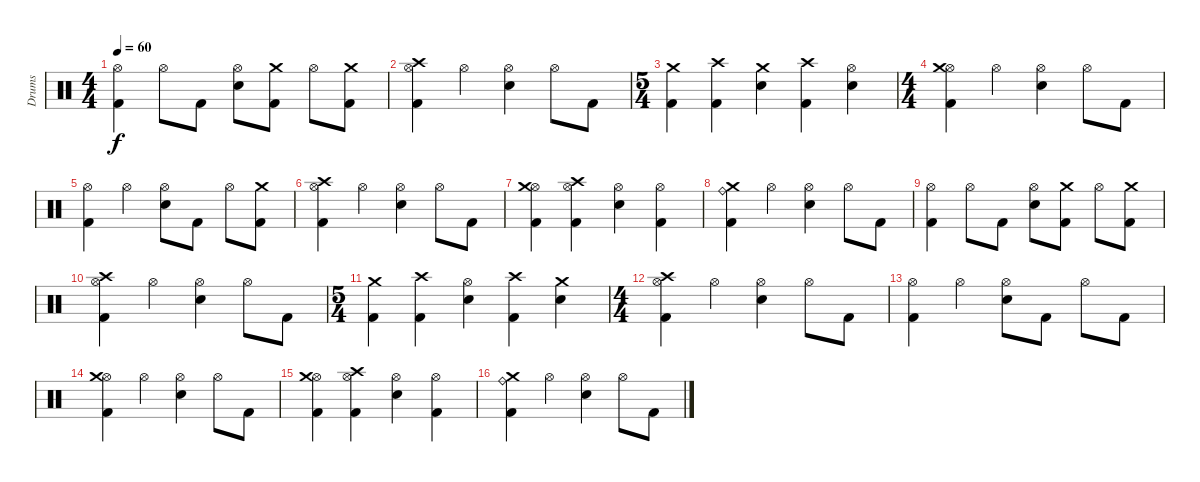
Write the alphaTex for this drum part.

\track ("Drums" "Drums") {instrument percussion}
\staff {score}
\articulation defaults
\ts (4 4)
\tempo 60
\clef neutral
\ks c
("Kick (hit) 2" "Hi-Hat (open)").4{dy f} "Hi-Hat (open)".8 "Kick (hit) 2".8 ("Electric Snare (hit)" "Hi-Hat (open)").8 ("Kick (hit) 2" "Crash medium (hit)").8 "Hi-Hat (open)".8 ("Kick (hit) 2" "Crash medium (hit)").8 |
("Kick (hit) 2" "Hi-Hat (open)" "Crash high (hit)").4 "Hi-Hat (open)".4 ("Electric Snare (hit)" "Hi-Hat (open)").4 "Hi-Hat (open)".8 "Kick (hit) 2".8 |
\ts (5 4)
("Kick (hit) 2" "Crash medium (hit)").4 ("Kick (hit) 2" "Crash high (hit)").4 ("Electric Snare (hit)" "Crash medium (hit)").4 ("Kick (hit) 2" "Crash high (hit)").4 ("Electric Snare (hit)" "Hi-Hat (open)").4 |
\ts (4 4)
("Kick (hit) 2" "Hi-Hat (open)" "Crash medium (hit)").4 "Hi-Hat (open)".4 ("Electric Snare (hit)" "Hi-Hat (open)").4 "Hi-Hat (open)".8 "Kick (hit) 2".8 |
("Kick (hit) 2" "Hi-Hat (open)").4 "Hi-Hat (open)".4 ("Electric Snare (hit)" "Hi-Hat (open)").8 "Kick (hit) 2".8 "Hi-Hat (open)".8 ("Kick (hit) 2" "Crash medium (hit)").8 |
("Kick (hit) 2" "Hi-Hat (open)" "Crash high (hit)").4 "Hi-Hat (open)".4 ("Electric Snare (hit)" "Hi-Hat (open)").4 "Hi-Hat (open)".8 "Kick (hit) 2".8 |
("Kick (hit) 2" "Hi-Hat (open)" "Crash medium (hit)").4 ("Kick (hit) 2" "Hi-Hat (open)" "Crash high (hit)").4 ("Electric Snare (hit)" "Hi-Hat (open)").4 ("Kick (hit) 2" "Hi-Hat (open)").4 |
("Kick (hit) 2" "Ride (bell)" "Crash medium (hit)").4 "Hi-Hat (open)".4 ("Electric Snare (hit)" "Hi-Hat (open)").4 "Hi-Hat (open)".8 "Kick (hit) 2".8 |
("Kick (hit) 2" "Hi-Hat (open)").4 "Hi-Hat (open)".8 "Kick (hit) 2".8 ("Electric Snare (hit)" "Hi-Hat (open)").8 ("Kick (hit) 2" "Crash medium (hit)").8 "Hi-Hat (open)".8 ("Kick (hit) 2" "Crash medium (hit)").8 |
("Kick (hit) 2" "Hi-Hat (open)" "Crash high (hit)").4 "Hi-Hat (open)".4 ("Electric Snare (hit)" "Hi-Hat (open)").4 "Hi-Hat (open)".8 "Kick (hit) 2".8 |
\ts (5 4)
("Kick (hit) 2" "Crash medium (hit)").4 ("Kick (hit) 2" "Crash high (hit)").4 ("Electric Snare (hit)" "Hi-Hat (open)").4 ("Kick (hit) 2" "Crash high (hit)").4 ("Electric Snare (hit)" "Crash medium (hit)").4 |
\ts (4 4)
("Kick (hit) 2" "Hi-Hat (open)" "Crash high (hit)").4 "Hi-Hat (open)".4 ("Electric Snare (hit)" "Hi-Hat (open)").4 "Hi-Hat (open)".8 "Kick (hit) 2".8 |
("Kick (hit) 2" "Hi-Hat (open)").4 "Hi-Hat (open)".4 ("Electric Snare (hit)" "Hi-Hat (open)").8 "Kick (hit) 2".8 "Hi-Hat (open)".8 "Kick (hit) 2".8 |
("Kick (hit) 2" "Hi-Hat (open)" "Crash medium (hit)").4 "Hi-Hat (open)".4 ("Electric Snare (hit)" "Hi-Hat (open)").4 "Hi-Hat (open)".8 "Kick (hit) 2".8 |
("Kick (hit) 2" "Hi-Hat (open)" "Crash medium (hit)").4 ("Kick (hit) 2" "Hi-Hat (open)" "Crash high (hit)").4 ("Electric Snare (hit)" "Hi-Hat (open)").4 ("Kick (hit) 2" "Hi-Hat (open)").4 |
("Kick (hit) 2" "Ride (bell)" "Crash medium (hit)").4 "Hi-Hat (open)".4 ("Electric Snare (hit)" "Hi-Hat (open)").4 "Hi-Hat (open)".8 "Kick (hit) 2".8
